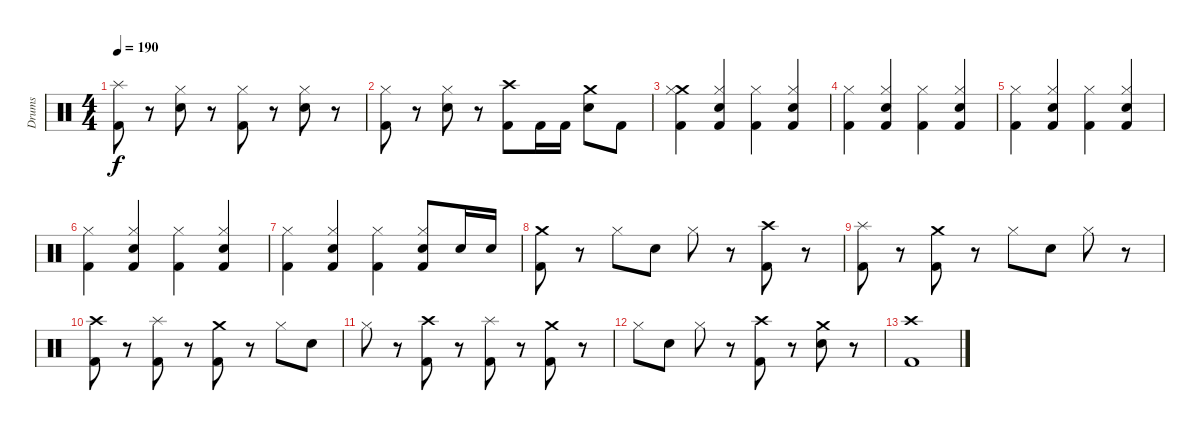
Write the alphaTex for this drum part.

\track ("Drums" "Drums") {instrument percussion}
\staff {score}
\articulation defaults
\ts (4 4)
\tempo 190
\clef neutral
\ks c
("Splash (hit)" "Kick (hit) 2").8{dy f} r.8 ("Hi-Hat (closed)" "Snare (hit) 2").8 r.8 ("Hi-Hat (closed)" "Kick (hit) 2").8 r.8 ("Hi-Hat (closed)" "Snare (hit) 2").8 r.8 |
("Hi-Hat (closed)" "Kick (hit) 2").8 r.8 ("Hi-Hat (closed)" "Snare (hit) 2").8 r.8 ("Crash high (hit)" "Kick (hit) 2").8 "Kick (hit) 2".16 "Kick (hit) 2".16 ("Crash medium (hit)" "Snare (hit) 2").8 "Kick (hit) 2".8 |
("Crash medium (hit)" "Hi-Hat (closed)" "Kick (hit) 2").4 ("Hi-Hat (closed)" "Snare (hit) 2" "Kick (hit) 2").4 ("Hi-Hat (closed)" "Kick (hit) 2").4 ("Hi-Hat (closed)" "Snare (hit) 2" "Kick (hit) 2").4 |
("Hi-Hat (closed)" "Kick (hit) 2").4 ("Hi-Hat (closed)" "Snare (hit) 2" "Kick (hit) 2").4 ("Hi-Hat (closed)" "Kick (hit) 2").4 ("Hi-Hat (closed)" "Snare (hit) 2" "Kick (hit) 2").4 |
("Hi-Hat (closed)" "Kick (hit) 2").4 ("Hi-Hat (closed)" "Snare (hit) 2" "Kick (hit) 2").4 ("Hi-Hat (closed)" "Kick (hit) 2").4 ("Hi-Hat (closed)" "Snare (hit) 2" "Kick (hit) 2").4 |
("Hi-Hat (closed)" "Kick (hit) 2").4 ("Hi-Hat (closed)" "Snare (hit) 2" "Kick (hit) 2").4 ("Hi-Hat (closed)" "Kick (hit) 2").4 ("Hi-Hat (closed)" "Snare (hit) 2" "Kick (hit) 2").4 |
("Hi-Hat (closed)" "Kick (hit) 2").4 ("Hi-Hat (closed)" "Snare (hit) 2" "Kick (hit) 2").4 ("Hi-Hat (closed)" "Kick (hit) 2").4 ("Hi-Hat (closed)" "Snare (hit) 2" "Kick (hit) 2").8 "Snare (hit) 2".16 "Snare (hit) 2".16 |
("Crash medium (hit)" "Kick (hit) 2").8 r.8 "Hi-Hat (closed)".8 "Snare (hit) 2".8 "Hi-Hat (closed)".8 r.8 ("Crash high (hit)" "Kick (hit) 2").8 r.8 |
("Splash (hit)" "Kick (hit) 2").8 r.8 ("Crash medium (hit)" "Kick (hit) 2").8 r.8 "Hi-Hat (closed)".8 "Snare (hit) 2".8 "Hi-Hat (closed)".8 r.8 |
("Crash high (hit)" "Kick (hit) 2").8 r.8 ("Splash (hit)" "Kick (hit) 2").8 r.8 ("Crash medium (hit)" "Kick (hit) 2").8 r.8 "Hi-Hat (closed)".8 "Snare (hit) 2".8 |
"Hi-Hat (closed)".8 r.8 ("Crash high (hit)" "Kick (hit) 2").8 r.8 ("Splash (hit)" "Kick (hit) 2").8 r.8 ("Crash medium (hit)" "Kick (hit) 2").8 r.8 |
"Hi-Hat (closed)".8 "Snare (hit) 2".8 "Hi-Hat (closed)".8 r.8 ("Crash high (hit)" "Kick (hit) 2").8 r.8 ("Crash medium (hit)" "Snare (hit) 2").8 r.8 |
("Crash high (hit)" "Kick (hit) 2").1
